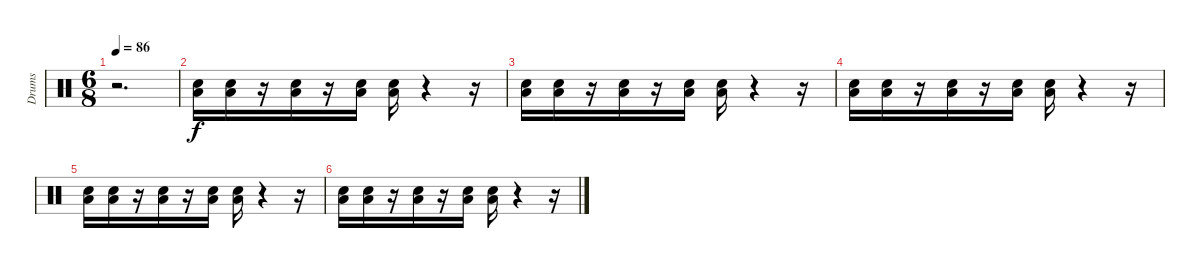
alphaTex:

\track ("Drums" "Drums") {instrument percussion}
\staff {score}
\articulation defaults
\ts (6 8)
\tempo 86
\clef neutral
\ks c
r.2{d dy mf} |
("Snare (hit) 2" "Low Floor Tom (hit)").16{dy f volume 8} ("Snare (hit) 2" "Low Floor Tom (hit)").16 r.16 ("Snare (hit) 2" "Low Floor Tom (hit)").16{volume 8} r.16 ("Snare (hit) 2" "Low Floor Tom (hit)").16 ("Snare (hit) 2" "Low Floor Tom (hit)").16{volume 8} r.4 r.16 |
("Snare (hit) 2" "Low Floor Tom (hit)").16{volume 8} ("Snare (hit) 2" "Low Floor Tom (hit)").16 r.16 ("Snare (hit) 2" "Low Floor Tom (hit)").16{volume 8} r.16 ("Snare (hit) 2" "Low Floor Tom (hit)").16 ("Snare (hit) 2" "Low Floor Tom (hit)").16{volume 8} r.4 r.16 |
("Snare (hit) 2" "Low Floor Tom (hit)").16{volume 9} ("Snare (hit) 2" "Low Floor Tom (hit)").16 r.16 ("Snare (hit) 2" "Low Floor Tom (hit)").16{volume 9} r.16 ("Snare (hit) 2" "Low Floor Tom (hit)").16 ("Snare (hit) 2" "Low Floor Tom (hit)").16{volume 9} r.4 r.16 |
("Snare (hit) 2" "Low Floor Tom (hit)").16{volume 9} ("Snare (hit) 2" "Low Floor Tom (hit)").16 r.16 ("Snare (hit) 2" "Low Floor Tom (hit)").16{volume 9} r.16 ("Snare (hit) 2" "Low Floor Tom (hit)").16 ("Snare (hit) 2" "Low Floor Tom (hit)").16{volume 9} r.4 r.16 |
("Snare (hit) 2" "Low Floor Tom (hit)").16{volume 10} ("Snare (hit) 2" "Low Floor Tom (hit)").16 r.16 ("Snare (hit) 2" "Low Floor Tom (hit)").16{volume 10} r.16 ("Snare (hit) 2" "Low Floor Tom (hit)").16 ("Snare (hit) 2" "Low Floor Tom (hit)").16{volume 10} r.4 r.16
